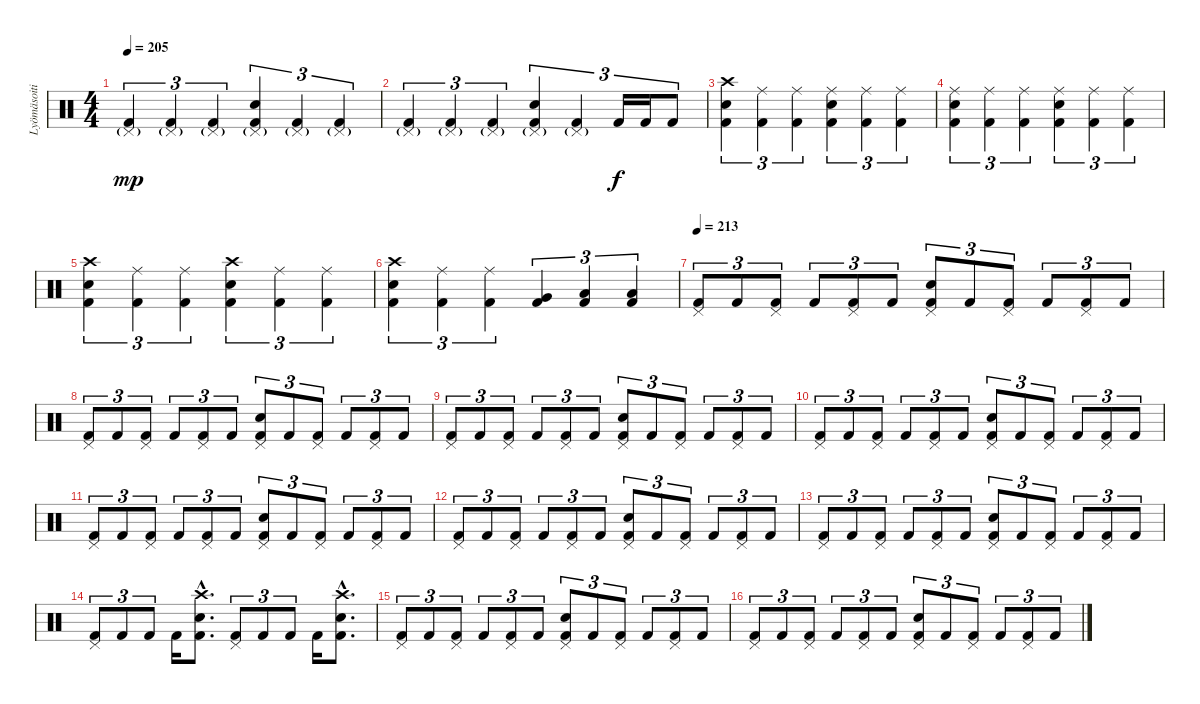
\track ("Lyömäsoitin" "Lyömäsoiti") {instrument percussion}
\staff {score}
\articulation defaults
\ts (4 4)
\tempo 205
\clef neutral
\ks c
("Pedal Hi-Hat (hit)"{g} "Kick (hit) 2").4{tu (3 2) dy mp} ("Pedal Hi-Hat (hit)"{g} "Kick (hit) 2").4{tu (3 2)} ("Pedal Hi-Hat (hit)"{g} "Kick (hit) 2").4{tu (3 2)} ("Pedal Hi-Hat (hit)"{g} "Electric Snare (hit)" "Kick (hit) 2").4{tu (3 2)} ("Pedal Hi-Hat (hit)"{g} "Kick (hit) 2").4{tu (3 2)} ("Pedal Hi-Hat (hit)"{g} "Kick (hit) 2").4{tu (3 2)} |
("Pedal Hi-Hat (hit)"{g} "Kick (hit) 2").4{tu (3 2)} ("Pedal Hi-Hat (hit)"{g} "Kick (hit) 2").4{tu (3 2)} ("Pedal Hi-Hat (hit)"{g} "Kick (hit) 2").4{tu (3 2)} ("Pedal Hi-Hat (hit)"{g} "Electric Snare (hit)" "Kick (hit) 2").4{tu (3 2)} ("Pedal Hi-Hat (hit)"{g} "Kick (hit) 2").4{tu (3 2)} "Kick (hit) 2".16{tu (3 2) dy f} "Kick (hit) 2".16{tu (3 2)} "Kick (hit) 2".8{tu (3 2)} |
("Crash high (hit)" "Electric Snare (hit)" "Kick (hit) 2").4{tu (3 2)} ("Ride (middle)" "Kick (hit) 2").4{tu (3 2)} ("Ride (middle)" "Kick (hit) 2").4{tu (3 2)} ("Ride (middle)" "Electric Snare (hit)" "Kick (hit) 2").4{tu (3 2)} ("Ride (middle)" "Kick (hit) 2").4{tu (3 2)} ("Ride (middle)" "Kick (hit) 2").4{tu (3 2)} |
("Ride (middle)" "Electric Snare (hit)" "Kick (hit) 2").4{tu (3 2)} ("Ride (middle)" "Kick (hit) 2").4{tu (3 2)} ("Ride (middle)" "Kick (hit) 2").4{tu (3 2)} ("Ride (middle)" "Electric Snare (hit)" "Kick (hit) 2").4{tu (3 2)} ("Ride (middle)" "Kick (hit) 2").4{tu (3 2)} ("Ride (middle)" "Kick (hit) 2").4{tu (3 2)} |
("Crash high (hit)" "Electric Snare (hit)" "Kick (hit) 2").4{tu (3 2)} ("Ride (middle)" "Kick (hit) 2").4{tu (3 2)} ("Ride (middle)" "Kick (hit) 2").4{tu (3 2)} ("Crash high (hit)" "Electric Snare (hit)" "Kick (hit) 2").4{tu (3 2)} ("Ride (middle)" "Kick (hit) 2").4{tu (3 2)} ("Ride (middle)" "Kick (hit) 2").4{tu (3 2)} |
("Crash high (hit)" "Electric Snare (hit)" "Kick (hit) 2").4{tu (3 2)} ("Ride (middle)" "Kick (hit) 2").4{tu (3 2)} ("Ride (middle)" "Kick (hit) 2").4{tu (3 2)} ("Very Low Tom (hit)" "Kick (hit) 2").4{tu (3 2)} ("Low Floor Tom (hit)" "Kick (hit) 2").4{tu (3 2)} ("Low Floor Tom (hit)" "Kick (hit) 2").4{tu (3 2)} |
\tempo 213
("Pedal Hi-Hat (hit)" "Kick (hit) 2").8{tu (3 2)} "Kick (hit) 2".8{tu (3 2)} ("Pedal Hi-Hat (hit)" "Kick (hit) 2").8{tu (3 2)} "Kick (hit) 2".8{tu (3 2)} ("Pedal Hi-Hat (hit)" "Kick (hit) 2").8{tu (3 2)} "Kick (hit) 2".8{tu (3 2)} ("Pedal Hi-Hat (hit)" "Electric Snare (hit)" "Kick (hit) 2").8{tu (3 2)} "Kick (hit) 2".8{tu (3 2)} ("Pedal Hi-Hat (hit)" "Kick (hit) 2").8{tu (3 2)} "Kick (hit) 2".8{tu (3 2)} ("Pedal Hi-Hat (hit)" "Kick (hit) 2").8{tu (3 2)} "Kick (hit) 2".8{tu (3 2)} |
("Pedal Hi-Hat (hit)" "Kick (hit) 2").8{tu (3 2)} "Kick (hit) 2".8{tu (3 2)} ("Pedal Hi-Hat (hit)" "Kick (hit) 2").8{tu (3 2)} "Kick (hit) 2".8{tu (3 2)} ("Pedal Hi-Hat (hit)" "Kick (hit) 2").8{tu (3 2)} "Kick (hit) 2".8{tu (3 2)} ("Pedal Hi-Hat (hit)" "Electric Snare (hit)" "Kick (hit) 2").8{tu (3 2)} "Kick (hit) 2".8{tu (3 2)} ("Pedal Hi-Hat (hit)" "Kick (hit) 2").8{tu (3 2)} "Kick (hit) 2".8{tu (3 2)} ("Pedal Hi-Hat (hit)" "Kick (hit) 2").8{tu (3 2)} "Kick (hit) 2".8{tu (3 2)} |
("Pedal Hi-Hat (hit)" "Kick (hit) 2").8{tu (3 2)} "Kick (hit) 2".8{tu (3 2)} ("Pedal Hi-Hat (hit)" "Kick (hit) 2").8{tu (3 2)} "Kick (hit) 2".8{tu (3 2)} ("Pedal Hi-Hat (hit)" "Kick (hit) 2").8{tu (3 2)} "Kick (hit) 2".8{tu (3 2)} ("Pedal Hi-Hat (hit)" "Electric Snare (hit)" "Kick (hit) 2").8{tu (3 2)} "Kick (hit) 2".8{tu (3 2)} ("Pedal Hi-Hat (hit)" "Kick (hit) 2").8{tu (3 2)} "Kick (hit) 2".8{tu (3 2)} ("Pedal Hi-Hat (hit)" "Kick (hit) 2").8{tu (3 2)} "Kick (hit) 2".8{tu (3 2)} |
("Pedal Hi-Hat (hit)" "Kick (hit) 2").8{tu (3 2)} "Kick (hit) 2".8{tu (3 2)} ("Pedal Hi-Hat (hit)" "Kick (hit) 2").8{tu (3 2)} "Kick (hit) 2".8{tu (3 2)} ("Pedal Hi-Hat (hit)" "Kick (hit) 2").8{tu (3 2)} "Kick (hit) 2".8{tu (3 2)} ("Pedal Hi-Hat (hit)" "Electric Snare (hit)" "Kick (hit) 2").8{tu (3 2)} "Kick (hit) 2".8{tu (3 2)} ("Pedal Hi-Hat (hit)" "Kick (hit) 2").8{tu (3 2)} "Kick (hit) 2".8{tu (3 2)} ("Pedal Hi-Hat (hit)" "Kick (hit) 2").8{tu (3 2)} "Kick (hit) 2".8{tu (3 2)} |
("Pedal Hi-Hat (hit)" "Kick (hit) 2").8{tu (3 2)} "Kick (hit) 2".8{tu (3 2)} ("Pedal Hi-Hat (hit)" "Kick (hit) 2").8{tu (3 2)} "Kick (hit) 2".8{tu (3 2)} ("Pedal Hi-Hat (hit)" "Kick (hit) 2").8{tu (3 2)} "Kick (hit) 2".8{tu (3 2)} ("Pedal Hi-Hat (hit)" "Electric Snare (hit)" "Kick (hit) 2").8{tu (3 2)} "Kick (hit) 2".8{tu (3 2)} ("Pedal Hi-Hat (hit)" "Kick (hit) 2").8{tu (3 2)} "Kick (hit) 2".8{tu (3 2)} ("Pedal Hi-Hat (hit)" "Kick (hit) 2").8{tu (3 2)} "Kick (hit) 2".8{tu (3 2)} |
("Pedal Hi-Hat (hit)" "Kick (hit) 2").8{tu (3 2)} "Kick (hit) 2".8{tu (3 2)} ("Pedal Hi-Hat (hit)" "Kick (hit) 2").8{tu (3 2)} "Kick (hit) 2".8{tu (3 2)} ("Pedal Hi-Hat (hit)" "Kick (hit) 2").8{tu (3 2)} "Kick (hit) 2".8{tu (3 2)} ("Pedal Hi-Hat (hit)" "Electric Snare (hit)" "Kick (hit) 2").8{tu (3 2)} "Kick (hit) 2".8{tu (3 2)} ("Pedal Hi-Hat (hit)" "Kick (hit) 2").8{tu (3 2)} "Kick (hit) 2".8{tu (3 2)} ("Pedal Hi-Hat (hit)" "Kick (hit) 2").8{tu (3 2)} "Kick (hit) 2".8{tu (3 2)} |
("Pedal Hi-Hat (hit)" "Kick (hit) 2").8{tu (3 2)} "Kick (hit) 2".8{tu (3 2)} ("Pedal Hi-Hat (hit)" "Kick (hit) 2").8{tu (3 2)} "Kick (hit) 2".8{tu (3 2)} ("Pedal Hi-Hat (hit)" "Kick (hit) 2").8{tu (3 2)} "Kick (hit) 2".8{tu (3 2)} ("Pedal Hi-Hat (hit)" "Electric Snare (hit)" "Kick (hit) 2").8{tu (3 2)} "Kick (hit) 2".8{tu (3 2)} ("Pedal Hi-Hat (hit)" "Kick (hit) 2").8{tu (3 2)} "Kick (hit) 2".8{tu (3 2)} ("Pedal Hi-Hat (hit)" "Kick (hit) 2").8{tu (3 2)} "Kick (hit) 2".8{tu (3 2)} |
("Pedal Hi-Hat (hit)" "Kick (hit) 2").8{tu (3 2)} "Kick (hit) 2".8{tu (3 2)} "Kick (hit) 2".8{tu (3 2)} "Kick (hit) 2".16 ("Crash high (hit)"{hac} "Electric Snare (hit)"{hac} "Kick (hit) 2"{hac}).8{d} ("Pedal Hi-Hat (hit)" "Kick (hit) 2").8{tu (3 2)} "Kick (hit) 2".8{tu (3 2)} "Kick (hit) 2".8{tu (3 2)} "Kick (hit) 2".16 ("Crash high (hit)"{hac} "Electric Snare (hit)"{hac} "Kick (hit) 2"{hac}).8{d} |
("Pedal Hi-Hat (hit)" "Kick (hit) 2").8{tu (3 2)} "Kick (hit) 2".8{tu (3 2)} ("Pedal Hi-Hat (hit)" "Kick (hit) 2").8{tu (3 2)} "Kick (hit) 2".8{tu (3 2)} ("Pedal Hi-Hat (hit)" "Kick (hit) 2").8{tu (3 2)} "Kick (hit) 2".8{tu (3 2)} ("Pedal Hi-Hat (hit)" "Electric Snare (hit)" "Kick (hit) 2").8{tu (3 2)} "Kick (hit) 2".8{tu (3 2)} ("Pedal Hi-Hat (hit)" "Kick (hit) 2").8{tu (3 2)} "Kick (hit) 2".8{tu (3 2)} ("Pedal Hi-Hat (hit)" "Kick (hit) 2").8{tu (3 2)} "Kick (hit) 2".8{tu (3 2)} |
("Pedal Hi-Hat (hit)" "Kick (hit) 2").8{tu (3 2)} "Kick (hit) 2".8{tu (3 2)} ("Pedal Hi-Hat (hit)" "Kick (hit) 2").8{tu (3 2)} "Kick (hit) 2".8{tu (3 2)} ("Pedal Hi-Hat (hit)" "Kick (hit) 2").8{tu (3 2)} "Kick (hit) 2".8{tu (3 2)} ("Pedal Hi-Hat (hit)" "Electric Snare (hit)" "Kick (hit) 2").8{tu (3 2)} "Kick (hit) 2".8{tu (3 2)} ("Pedal Hi-Hat (hit)" "Kick (hit) 2").8{tu (3 2)} "Kick (hit) 2".8{tu (3 2)} ("Pedal Hi-Hat (hit)" "Kick (hit) 2").8{tu (3 2)} "Kick (hit) 2".8{tu (3 2)}
